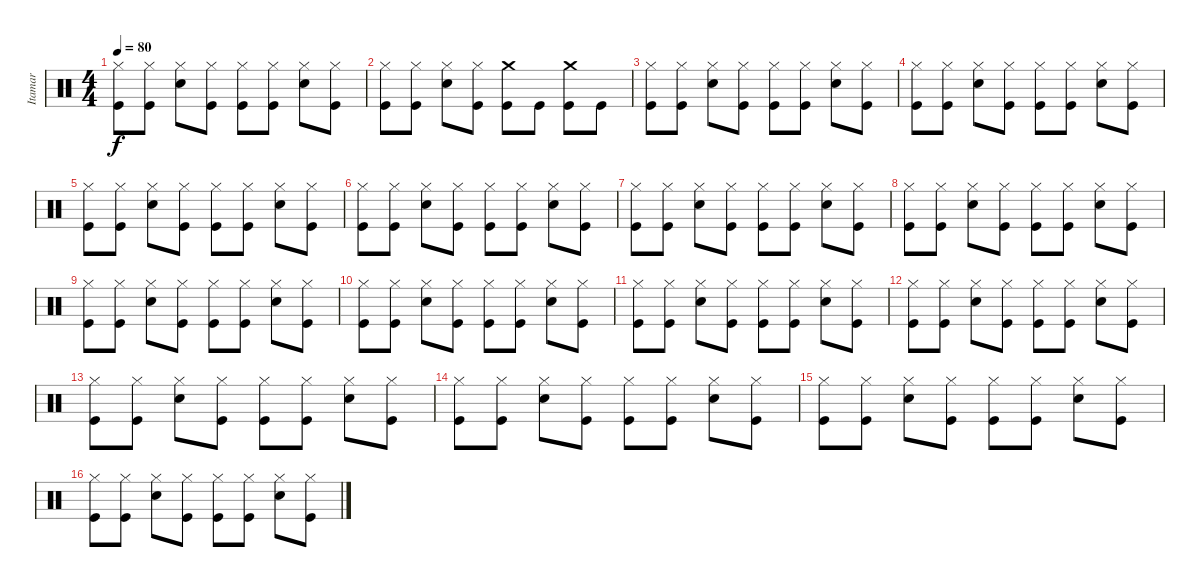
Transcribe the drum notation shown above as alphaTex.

\track ("Itamar" "Itamar") {instrument percussion}
\staff {score}
\articulation defaults
\ts (4 4)
\tempo 80
\clef neutral
\ks c
("Hi-Hat (closed)" "Kick (hit)").8{dy f} ("Hi-Hat (closed)" "Kick (hit)").8 ("Hi-Hat (closed)" "Electric Snare (hit)").8 ("Hi-Hat (closed)" "Kick (hit)").8 ("Hi-Hat (closed)" "Kick (hit)").8 ("Hi-Hat (closed)" "Kick (hit)").8 ("Hi-Hat (closed)" "Electric Snare (hit)").8 ("Hi-Hat (closed)" "Kick (hit)").8 |
("Hi-Hat (closed)" "Kick (hit)").8 ("Hi-Hat (closed)" "Kick (hit)").8 ("Hi-Hat (closed)" "Electric Snare (hit)").8 ("Hi-Hat (closed)" "Kick (hit)").8 ("Crash medium (hit)" "Kick (hit)").8 "Kick (hit)".8 ("Crash medium (hit)" "Kick (hit)").8 "Kick (hit)".8 |
("Hi-Hat (closed)" "Kick (hit)").8 ("Hi-Hat (closed)" "Kick (hit)").8 ("Hi-Hat (closed)" "Electric Snare (hit)").8 ("Hi-Hat (closed)" "Kick (hit)").8 ("Hi-Hat (closed)" "Kick (hit)").8 ("Hi-Hat (closed)" "Kick (hit)").8 ("Hi-Hat (closed)" "Electric Snare (hit)").8 ("Hi-Hat (closed)" "Kick (hit)").8 |
("Hi-Hat (closed)" "Kick (hit)").8 ("Hi-Hat (closed)" "Kick (hit)").8 ("Hi-Hat (closed)" "Electric Snare (hit)").8 ("Hi-Hat (closed)" "Kick (hit)").8 ("Hi-Hat (closed)" "Kick (hit)").8 ("Hi-Hat (closed)" "Kick (hit)").8 ("Hi-Hat (closed)" "Electric Snare (hit)").8 ("Hi-Hat (closed)" "Kick (hit)").8 |
("Hi-Hat (closed)" "Kick (hit)").8 ("Hi-Hat (closed)" "Kick (hit)").8 ("Hi-Hat (closed)" "Electric Snare (hit)").8 ("Hi-Hat (closed)" "Kick (hit)").8 ("Hi-Hat (closed)" "Kick (hit)").8 ("Hi-Hat (closed)" "Kick (hit)").8 ("Hi-Hat (closed)" "Electric Snare (hit)").8 ("Hi-Hat (closed)" "Kick (hit)").8 |
("Hi-Hat (closed)" "Kick (hit)").8 ("Hi-Hat (closed)" "Kick (hit)").8 ("Hi-Hat (closed)" "Electric Snare (hit)").8 ("Hi-Hat (closed)" "Kick (hit)").8 ("Hi-Hat (closed)" "Kick (hit)").8 ("Hi-Hat (closed)" "Kick (hit)").8 ("Hi-Hat (closed)" "Electric Snare (hit)").8 ("Hi-Hat (closed)" "Kick (hit)").8 |
("Hi-Hat (closed)" "Kick (hit)").8 ("Hi-Hat (closed)" "Kick (hit)").8 ("Hi-Hat (closed)" "Electric Snare (hit)").8 ("Hi-Hat (closed)" "Kick (hit)").8 ("Hi-Hat (closed)" "Kick (hit)").8 ("Hi-Hat (closed)" "Kick (hit)").8 ("Hi-Hat (closed)" "Electric Snare (hit)").8 ("Hi-Hat (closed)" "Kick (hit)").8 |
("Hi-Hat (closed)" "Kick (hit)").8 ("Hi-Hat (closed)" "Kick (hit)").8 ("Hi-Hat (closed)" "Electric Snare (hit)").8 ("Hi-Hat (closed)" "Kick (hit)").8 ("Hi-Hat (closed)" "Kick (hit)").8 ("Hi-Hat (closed)" "Kick (hit)").8 ("Hi-Hat (closed)" "Electric Snare (hit)").8 ("Hi-Hat (closed)" "Kick (hit)").8 |
("Hi-Hat (closed)" "Kick (hit)").8 ("Hi-Hat (closed)" "Kick (hit)").8 ("Hi-Hat (closed)" "Electric Snare (hit)").8 ("Hi-Hat (closed)" "Kick (hit)").8 ("Hi-Hat (closed)" "Kick (hit)").8 ("Hi-Hat (closed)" "Kick (hit)").8 ("Hi-Hat (closed)" "Electric Snare (hit)").8 ("Hi-Hat (closed)" "Kick (hit)").8 |
("Hi-Hat (closed)" "Kick (hit)").8 ("Hi-Hat (closed)" "Kick (hit)").8 ("Hi-Hat (closed)" "Electric Snare (hit)").8 ("Hi-Hat (closed)" "Kick (hit)").8 ("Hi-Hat (closed)" "Kick (hit)").8 ("Hi-Hat (closed)" "Kick (hit)").8 ("Hi-Hat (closed)" "Electric Snare (hit)").8 ("Hi-Hat (closed)" "Kick (hit)").8 |
("Hi-Hat (closed)" "Kick (hit)").8 ("Hi-Hat (closed)" "Kick (hit)").8 ("Hi-Hat (closed)" "Electric Snare (hit)").8 ("Hi-Hat (closed)" "Kick (hit)").8 ("Hi-Hat (closed)" "Kick (hit)").8 ("Hi-Hat (closed)" "Kick (hit)").8 ("Hi-Hat (closed)" "Electric Snare (hit)").8 ("Hi-Hat (closed)" "Kick (hit)").8 |
("Hi-Hat (closed)" "Kick (hit)").8 ("Hi-Hat (closed)" "Kick (hit)").8 ("Hi-Hat (closed)" "Electric Snare (hit)").8 ("Hi-Hat (closed)" "Kick (hit)").8 ("Hi-Hat (closed)" "Kick (hit)").8 ("Hi-Hat (closed)" "Kick (hit)").8 ("Hi-Hat (closed)" "Electric Snare (hit)").8 ("Hi-Hat (closed)" "Kick (hit)").8 |
("Hi-Hat (closed)" "Kick (hit)").8 ("Hi-Hat (closed)" "Kick (hit)").8 ("Hi-Hat (closed)" "Electric Snare (hit)").8 ("Hi-Hat (closed)" "Kick (hit)").8 ("Hi-Hat (closed)" "Kick (hit)").8 ("Hi-Hat (closed)" "Kick (hit)").8 ("Hi-Hat (closed)" "Electric Snare (hit)").8 ("Hi-Hat (closed)" "Kick (hit)").8 |
("Hi-Hat (closed)" "Kick (hit)").8 ("Hi-Hat (closed)" "Kick (hit)").8 ("Hi-Hat (closed)" "Electric Snare (hit)").8 ("Hi-Hat (closed)" "Kick (hit)").8 ("Hi-Hat (closed)" "Kick (hit)").8 ("Hi-Hat (closed)" "Kick (hit)").8 ("Hi-Hat (closed)" "Electric Snare (hit)").8 ("Hi-Hat (closed)" "Kick (hit)").8 |
("Hi-Hat (closed)" "Kick (hit)").8 ("Hi-Hat (closed)" "Kick (hit)").8 ("Hi-Hat (closed)" "Electric Snare (hit)").8 ("Hi-Hat (closed)" "Kick (hit)").8 ("Hi-Hat (closed)" "Kick (hit)").8 ("Hi-Hat (closed)" "Kick (hit)").8 ("Hi-Hat (closed)" "Electric Snare (hit)").8 ("Hi-Hat (closed)" "Kick (hit)").8 |
("Hi-Hat (closed)" "Kick (hit)").8 ("Hi-Hat (closed)" "Kick (hit)").8 ("Hi-Hat (closed)" "Electric Snare (hit)").8 ("Hi-Hat (closed)" "Kick (hit)").8 ("Hi-Hat (closed)" "Kick (hit)").8 ("Hi-Hat (closed)" "Kick (hit)").8 ("Hi-Hat (closed)" "Electric Snare (hit)").8 ("Hi-Hat (closed)" "Kick (hit)").8
